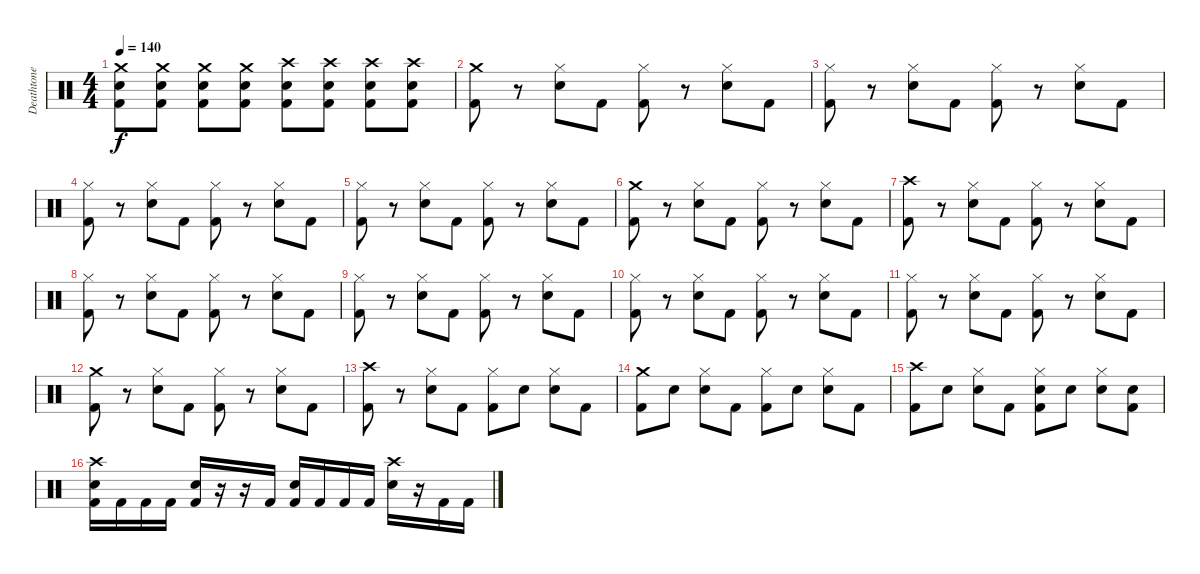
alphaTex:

\track ("Deathtone" "Deathtone") {instrument percussion}
\staff {score}
\articulation defaults
\ts (4 4)
\tempo 140
\clef neutral
\ks c
("Crash medium (hit)" "Snare (hit) 2" "Kick (hit) 2").8{dy f} ("Crash medium (hit)" "Snare (hit) 2" "Kick (hit) 2").8 ("Crash medium (hit)" "Snare (hit) 2" "Kick (hit) 2").8 ("Crash medium (hit)" "Snare (hit) 2" "Kick (hit) 2").8 ("Crash high (hit)" "Snare (hit) 2" "Kick (hit) 2").8 ("Crash high (hit)" "Snare (hit) 2" "Kick (hit) 2").8 ("Crash high (hit)" "Snare (hit) 2" "Kick (hit) 2").8 ("Crash high (hit)" "Snare (hit) 2" "Kick (hit) 2").8 |
("Crash medium (hit)" "Kick (hit) 2").8 r.8 ("Hi-Hat (closed)" "Snare (hit) 2").8 "Kick (hit) 2".8 ("Hi-Hat (closed)" "Kick (hit) 2").8 r.8 ("Hi-Hat (closed)" "Snare (hit) 2").8 "Kick (hit) 2".8 |
("Hi-Hat (closed)" "Kick (hit) 2").8 r.8 ("Hi-Hat (closed)" "Snare (hit) 2").8 "Kick (hit) 2".8 ("Hi-Hat (closed)" "Kick (hit) 2").8 r.8 ("Hi-Hat (closed)" "Snare (hit) 2").8 "Kick (hit) 2".8 |
("Hi-Hat (closed)" "Kick (hit) 2").8 r.8 ("Hi-Hat (closed)" "Snare (hit) 2").8 "Kick (hit) 2".8 ("Hi-Hat (closed)" "Kick (hit) 2").8 r.8 ("Hi-Hat (closed)" "Snare (hit) 2").8 "Kick (hit) 2".8 |
("Hi-Hat (closed)" "Kick (hit) 2").8 r.8 ("Hi-Hat (closed)" "Snare (hit) 2").8 "Kick (hit) 2".8 ("Hi-Hat (closed)" "Kick (hit) 2").8 r.8 ("Hi-Hat (closed)" "Snare (hit) 2").8 "Kick (hit) 2".8 |
("Crash medium (hit)" "Kick (hit) 2").8 r.8 ("Hi-Hat (closed)" "Snare (hit) 2").8 "Kick (hit) 2".8 ("Hi-Hat (closed)" "Kick (hit) 2").8 r.8 ("Hi-Hat (closed)" "Snare (hit) 2").8 "Kick (hit) 2".8 |
("Crash high (hit)" "Kick (hit) 2").8 r.8 ("Hi-Hat (closed)" "Snare (hit) 2").8 "Kick (hit) 2".8 ("Hi-Hat (closed)" "Kick (hit) 2").8 r.8 ("Hi-Hat (closed)" "Snare (hit) 2").8 "Kick (hit) 2".8 |
("Hi-Hat (closed)" "Kick (hit) 2").8 r.8 ("Hi-Hat (closed)" "Snare (hit) 2").8 "Kick (hit) 2".8 ("Hi-Hat (closed)" "Kick (hit) 2").8 r.8 ("Hi-Hat (closed)" "Snare (hit) 2").8 "Kick (hit) 2".8 |
("Hi-Hat (closed)" "Kick (hit) 2").8 r.8 ("Hi-Hat (closed)" "Snare (hit) 2").8 "Kick (hit) 2".8 ("Hi-Hat (closed)" "Kick (hit) 2").8 r.8 ("Hi-Hat (closed)" "Snare (hit) 2").8 "Kick (hit) 2".8 |
("Hi-Hat (closed)" "Kick (hit) 2").8 r.8 ("Hi-Hat (closed)" "Snare (hit) 2").8 "Kick (hit) 2".8 ("Hi-Hat (closed)" "Kick (hit) 2").8 r.8 ("Hi-Hat (closed)" "Snare (hit) 2").8 "Kick (hit) 2".8 |
("Hi-Hat (closed)" "Kick (hit) 2").8 r.8 ("Hi-Hat (closed)" "Snare (hit) 2").8 "Kick (hit) 2".8 ("Hi-Hat (closed)" "Kick (hit) 2").8 r.8 ("Hi-Hat (closed)" "Snare (hit) 2").8 "Kick (hit) 2".8 |
("Crash medium (hit)" "Kick (hit) 2").8 r.8 ("Hi-Hat (closed)" "Snare (hit) 2").8 "Kick (hit) 2".8 ("Hi-Hat (closed)" "Kick (hit) 2").8 r.8 ("Hi-Hat (closed)" "Snare (hit) 2").8 "Kick (hit) 2".8 |
("Crash high (hit)" "Kick (hit) 2").8 r.8 ("Hi-Hat (closed)" "Snare (hit) 2").8 "Kick (hit) 2".8 ("Hi-Hat (closed)" "Kick (hit) 2").8 "Snare (hit) 2".8 ("Hi-Hat (closed)" "Snare (hit) 2").8 "Kick (hit) 2".8 |
("Crash medium (hit)" "Kick (hit) 2").8 "Snare (hit) 2".8 ("Hi-Hat (closed)" "Snare (hit) 2").8 "Kick (hit) 2".8 ("Hi-Hat (closed)" "Kick (hit) 2").8 "Snare (hit) 2".8 ("Hi-Hat (closed)" "Snare (hit) 2").8 "Kick (hit) 2".8 |
("Crash high (hit)" "Kick (hit) 2").8 "Snare (hit) 2".8 ("Hi-Hat (closed)" "Snare (hit) 2").8 "Kick (hit) 2".8 ("Hi-Hat (closed)" "Snare (hit) 2" "Kick (hit) 2").8 "Snare (hit) 2".8 ("Hi-Hat (closed)" "Snare (hit) 2").8 ("Snare (hit) 2" "Kick (hit) 2").8 |
("Crash high (hit)" "Snare (hit) 2" "Kick (hit) 2").16 "Kick (hit) 2".16 "Kick (hit) 2".16 "Kick (hit) 2".16 ("Snare (hit) 2" "Kick (hit) 2").16 r.16 r.16 "Kick (hit) 2".16 ("Snare (hit) 2" "Kick (hit) 2").16 "Kick (hit) 2".16 "Kick (hit) 2".16 "Kick (hit) 2".16 ("Crash high (hit)" "Snare (hit) 2").16 r.16 "Kick (hit) 2".16 "Kick (hit) 2".16
